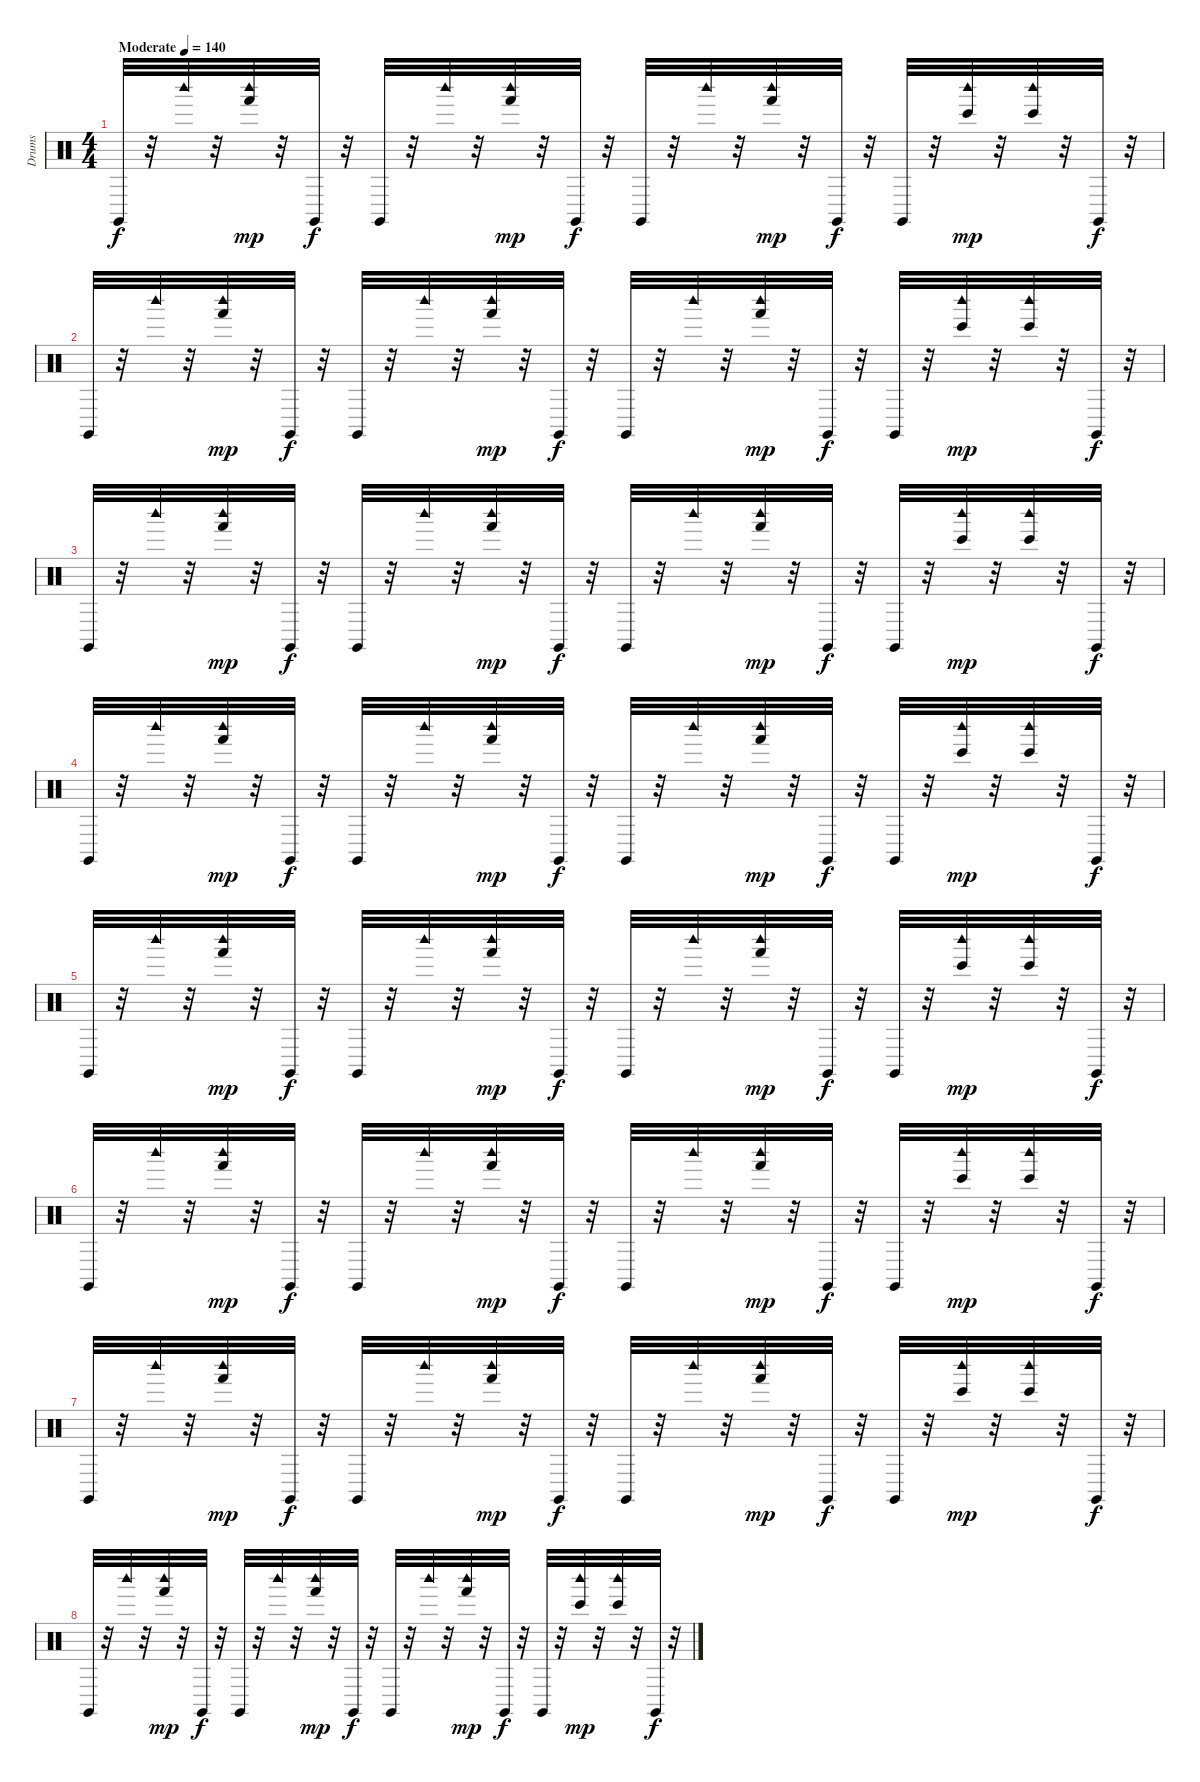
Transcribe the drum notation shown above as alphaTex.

\track ("Drums" "Drums") {instrument percussion}
\staff {score}
\articulation defaults
\ts (4 4)
\tempo (140 "Moderate")
\clef neutral
\ks c "Claves (hit)".32{dy f}
r.32 "Woodblock high (hit)".32 r.32 ("Hand (hit)" "Woodblock high (hit)").32{dy mp} r.32 "Claves (hit)".32{dy f} r.32 "Claves (hit)".32 r.32 "Woodblock high (hit)".32 r.32 ("Hand (hit)" "Woodblock high (hit)").32{dy mp} r.32 "Claves (hit)".32{dy f} r.32 "Claves (hit)".32 r.32 "Woodblock high (hit)".32 r.32 ("Hand (hit)" "Woodblock high (hit)").32{dy mp} r.32 "Claves (hit)".32{dy f} r.32 "Claves (hit)".32 r.32 ("Woodblock high (hit)" "Bongo High (hit)").32{dy mp} r.32 ("Bongo High (hit)" "Woodblock high (hit)").32 r.32 "Claves (hit)".32{dy f} r.32 |
"Claves (hit)".32 r.32 "Woodblock high (hit)".32 r.32 ("Hand (hit)" "Woodblock high (hit)").32{dy mp} r.32 "Claves (hit)".32{dy f} r.32 "Claves (hit)".32 r.32 "Woodblock high (hit)".32 r.32 ("Hand (hit)" "Woodblock high (hit)").32{dy mp} r.32 "Claves (hit)".32{dy f} r.32 "Claves (hit)".32 r.32 "Woodblock high (hit)".32 r.32 ("Woodblock high (hit)" "Hand (hit)").32{dy mp} r.32 "Claves (hit)".32{dy f} r.32 "Claves (hit)".32 r.32 ("Woodblock high (hit)" "Bongo High (hit)").32{dy mp} r.32 ("Woodblock high (hit)" "Bongo High (hit)").32 r.32 "Claves (hit)".32{dy f} r.32 |
"Claves (hit)".32 r.32 "Woodblock high (hit)".32 r.32 ("Hand (hit)" "Woodblock high (hit)").32{dy mp} r.32 "Claves (hit)".32{dy f} r.32 "Claves (hit)".32 r.32 "Woodblock high (hit)".32 r.32 ("Hand (hit)" "Woodblock high (hit)").32{dy mp} r.32 "Claves (hit)".32{dy f} r.32 "Claves (hit)".32 r.32 "Woodblock high (hit)".32 r.32 ("Hand (hit)" "Woodblock high (hit)").32{dy mp} r.32 "Claves (hit)".32{dy f} r.32 "Claves (hit)".32 r.32 ("Bongo High (hit)" "Woodblock high (hit)").32{dy mp} r.32 ("Bongo High (hit)" "Woodblock high (hit)").32 r.32 "Claves (hit)".32{dy f} r.32 |
"Claves (hit)".32 r.32 "Woodblock high (hit)".32 r.32 ("Hand (hit)" "Woodblock high (hit)").32{dy mp} r.32 "Claves (hit)".32{dy f} r.32 "Claves (hit)".32 r.32 "Woodblock high (hit)".32 r.32 ("Hand (hit)" "Woodblock high (hit)").32{dy mp} r.32 "Claves (hit)".32{dy f} r.32 "Claves (hit)".32 r.32 "Woodblock high (hit)".32 r.32 ("Hand (hit)" "Woodblock high (hit)").32{dy mp} r.32 "Claves (hit)".32{dy f} r.32 "Claves (hit)".32 r.32 ("Bongo High (hit)" "Woodblock high (hit)").32{dy mp} r.32 ("Bongo High (hit)" "Woodblock high (hit)").32 r.32 "Claves (hit)".32{dy f} r.32 |
"Claves (hit)".32 r.32 "Woodblock high (hit)".32 r.32 ("Woodblock high (hit)" "Hand (hit)").32{dy mp} r.32 "Claves (hit)".32{dy f} r.32 "Claves (hit)".32 r.32 "Woodblock high (hit)".32 r.32 ("Woodblock high (hit)" "Hand (hit)").32{dy mp} r.32 "Claves (hit)".32{dy f} r.32 "Claves (hit)".32 r.32 "Woodblock high (hit)".32 r.32 ("Woodblock high (hit)" "Hand (hit)").32{dy mp} r.32 "Claves (hit)".32{dy f} r.32 "Claves (hit)".32 r.32 ("Woodblock high (hit)" "Bongo High (hit)").32{dy mp} r.32 ("Woodblock high (hit)" "Bongo High (hit)").32 r.32 "Claves (hit)".32{dy f} r.32 |
"Claves (hit)".32 r.32 "Woodblock high (hit)".32 r.32 ("Woodblock high (hit)" "Hand (hit)").32{dy mp} r.32 "Claves (hit)".32{dy f} r.32 "Claves (hit)".32 r.32 "Woodblock high (hit)".32 r.32 ("Woodblock high (hit)" "Hand (hit)").32{dy mp} r.32 "Claves (hit)".32{dy f} r.32 "Claves (hit)".32 r.32 "Woodblock high (hit)".32 r.32 ("Woodblock high (hit)" "Hand (hit)").32{dy mp} r.32 "Claves (hit)".32{dy f} r.32 "Claves (hit)".32 r.32 ("Woodblock high (hit)" "Bongo High (hit)").32{dy mp} r.32 ("Woodblock high (hit)" "Bongo High (hit)").32 r.32 "Claves (hit)".32{dy f} r.32 |
"Claves (hit)".32 r.32 "Woodblock high (hit)".32 r.32 ("Hand (hit)" "Woodblock high (hit)").32{dy mp} r.32 "Claves (hit)".32{dy f} r.32 "Claves (hit)".32 r.32 "Woodblock high (hit)".32 r.32 ("Hand (hit)" "Woodblock high (hit)").32{dy mp} r.32 "Claves (hit)".32{dy f} r.32 "Claves (hit)".32 r.32 "Woodblock high (hit)".32 r.32 ("Hand (hit)" "Woodblock high (hit)").32{dy mp} r.32 "Claves (hit)".32{dy f} r.32 "Claves (hit)".32 r.32 ("Bongo High (hit)" "Woodblock high (hit)").32{dy mp} r.32 ("Bongo High (hit)" "Woodblock high (hit)").32 r.32 "Claves (hit)".32{dy f} r.32 |
"Claves (hit)".32 r.32 "Woodblock high (hit)".32 r.32 ("Woodblock high (hit)" "Hand (hit)").32{dy mp} r.32 "Claves (hit)".32{dy f} r.32 "Claves (hit)".32 r.32 "Woodblock high (hit)".32 r.32 ("Woodblock high (hit)" "Hand (hit)").32{dy mp} r.32 "Claves (hit)".32{dy f} r.32 "Claves (hit)".32 r.32 "Woodblock high (hit)".32 r.32 ("Woodblock high (hit)" "Hand (hit)").32{dy mp} r.32 "Claves (hit)".32{dy f} r.32 "Claves (hit)".32 r.32 ("Woodblock high (hit)" "Bongo High (hit)").32{dy mp} r.32 ("Woodblock high (hit)" "Bongo High (hit)").32 r.32 "Claves (hit)".32{dy f} r.32
